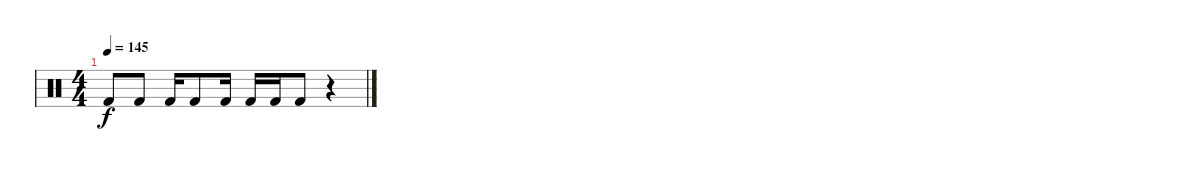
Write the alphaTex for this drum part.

\track "" {instrument percussion}
\staff {score}
\articulation defaults
\ts (4 4)
\tempo 145
\clef neutral
\ks c "Kick (hit) 2".8{dy f} "Kick (hit) 2".8 "Kick (hit) 2".16 "Kick (hit) 2".8 "Kick (hit) 2".16 "Kick (hit) 2".16 "Kick (hit) 2".16 "Kick (hit) 2".8
r.4
